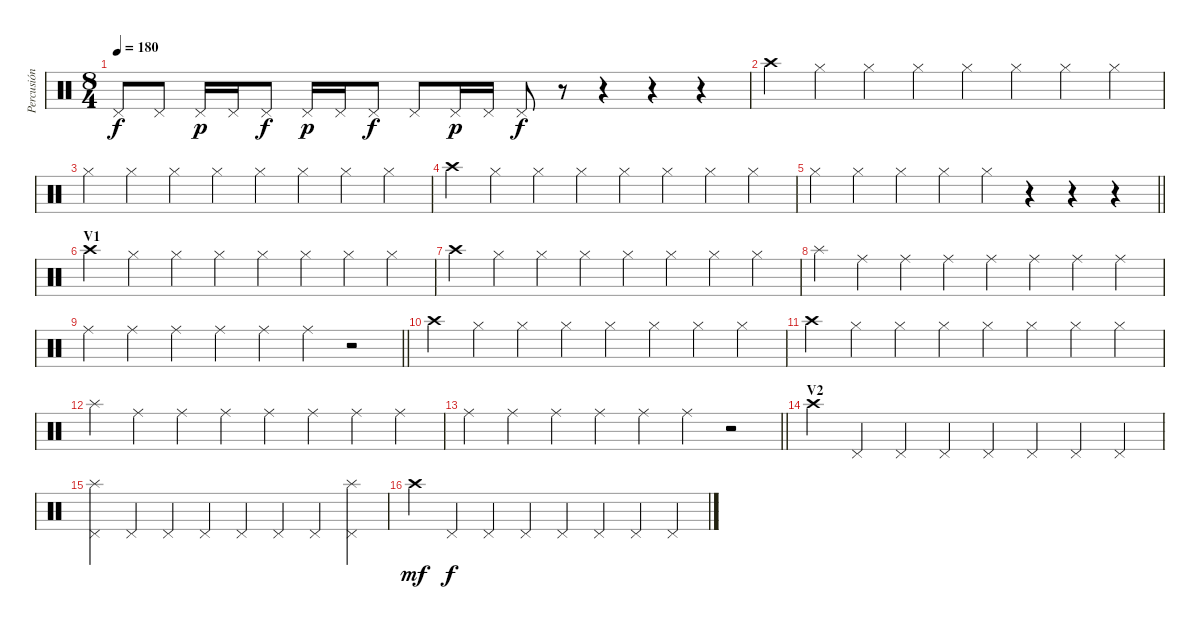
\track ("Percusión" "Percusión") {instrument percussion}
\staff {score}
\articulation defaults
\ts (8 4)
\tempo 180
\clef neutral
\ks c "Pedal Hi-Hat (hit)".8{dy f} "Pedal Hi-Hat (hit)".8 "Pedal Hi-Hat (hit)".16{dy p} "Pedal Hi-Hat (hit)".16 "Pedal Hi-Hat (hit)".8{dy f} "Pedal Hi-Hat (hit)".16{dy p} "Pedal Hi-Hat (hit)".16 "Pedal Hi-Hat (hit)".8{dy f} "Pedal Hi-Hat (hit)".8 "Pedal Hi-Hat (hit)".16{dy p} "Pedal Hi-Hat (hit)".16 "Pedal Hi-Hat (hit)".8{dy f}
r.8 r.4 r.4 r.4 |
"Crash high (hit)".4 "Hi-Hat (closed)".4 "Hi-Hat (closed)".4 "Hi-Hat (closed)".4 "Hi-Hat (closed)".4 "Hi-Hat (closed)".4 "Hi-Hat (closed)".4 "Hi-Hat (closed)".4 |
"Hi-Hat (closed)".4 "Hi-Hat (closed)".4 "Hi-Hat (closed)".4 "Hi-Hat (closed)".4 "Hi-Hat (closed)".4 "Hi-Hat (closed)".4 "Hi-Hat (closed)".4 "Hi-Hat (closed)".4 |
"Crash high (hit)".4 "Hi-Hat (closed)".4 "Hi-Hat (closed)".4 "Hi-Hat (closed)".4 "Hi-Hat (closed)".4 "Hi-Hat (closed)".4 "Hi-Hat (closed)".4 "Hi-Hat (closed)".4 |
\barLineRight lightlight "Hi-Hat (closed)".4 "Hi-Hat (closed)".4 "Hi-Hat (closed)".4 "Hi-Hat (closed)".4 "Hi-Hat (closed)".4
r.4 r.4 r.4 |
\section ("" "V1")
"Crash high (hit)".4 "Hi-Hat (closed)".4 "Hi-Hat (closed)".4 "Hi-Hat (closed)".4 "Hi-Hat (closed)".4 "Hi-Hat (closed)".4 "Hi-Hat (closed)".4 "Hi-Hat (closed)".4 |
"Crash high (hit)".4 "Hi-Hat (closed)".4 "Hi-Hat (closed)".4 "Hi-Hat (closed)".4 "Hi-Hat (closed)".4 "Hi-Hat (closed)".4 "Hi-Hat (closed)".4 "Hi-Hat (closed)".4 |
"Splash (hit)".4 "Ride (middle)".4 "Ride (middle)".4 "Ride (middle)".4 "Ride (middle)".4 "Ride (middle)".4 "Ride (middle)".4 "Ride (middle)".4 |
\barLineRight lightlight "Ride (middle)".4 "Ride (middle)".4 "Ride (middle)".4 "Ride (middle)".4 "Ride (middle)".4 "Ride (middle)".4
r.2 |
"Crash high (hit)".4 "Hi-Hat (closed)".4 "Hi-Hat (closed)".4 "Hi-Hat (closed)".4 "Hi-Hat (closed)".4 "Hi-Hat (closed)".4 "Hi-Hat (closed)".4 "Hi-Hat (closed)".4 |
"Crash high (hit)".4 "Hi-Hat (closed)".4 "Hi-Hat (closed)".4 "Hi-Hat (closed)".4 "Hi-Hat (closed)".4 "Hi-Hat (closed)".4 "Hi-Hat (closed)".4 "Hi-Hat (closed)".4 |
"Splash (hit)".4 "Ride (middle)".4 "Ride (middle)".4 "Ride (middle)".4 "Ride (middle)".4 "Ride (middle)".4 "Ride (middle)".4 "Ride (middle)".4 |
\barLineRight lightlight "Ride (middle)".4 "Ride (middle)".4 "Ride (middle)".4 "Ride (middle)".4 "Ride (middle)".4 "Ride (middle)".4
r.2 |
\section ("" "V2")
"Crash high (hit)".4 "Pedal Hi-Hat (hit)".4 "Pedal Hi-Hat (hit)".4 "Pedal Hi-Hat (hit)".4 "Pedal Hi-Hat (hit)".4 "Pedal Hi-Hat (hit)".4 "Pedal Hi-Hat (hit)".4 "Pedal Hi-Hat (hit)".4 |
("Splash (hit)" "Pedal Hi-Hat (hit)").4 "Pedal Hi-Hat (hit)".4 "Pedal Hi-Hat (hit)".4 "Pedal Hi-Hat (hit)".4 "Pedal Hi-Hat (hit)".4 "Pedal Hi-Hat (hit)".4 "Pedal Hi-Hat (hit)".4 ("Pedal Hi-Hat (hit)" "Splash (hit)").4 |
"Crash high (hit)".4{dy mf} "Pedal Hi-Hat (hit)".4{dy f} "Pedal Hi-Hat (hit)".4 "Pedal Hi-Hat (hit)".4 "Pedal Hi-Hat (hit)".4 "Pedal Hi-Hat (hit)".4 "Pedal Hi-Hat (hit)".4 "Pedal Hi-Hat (hit)".4
